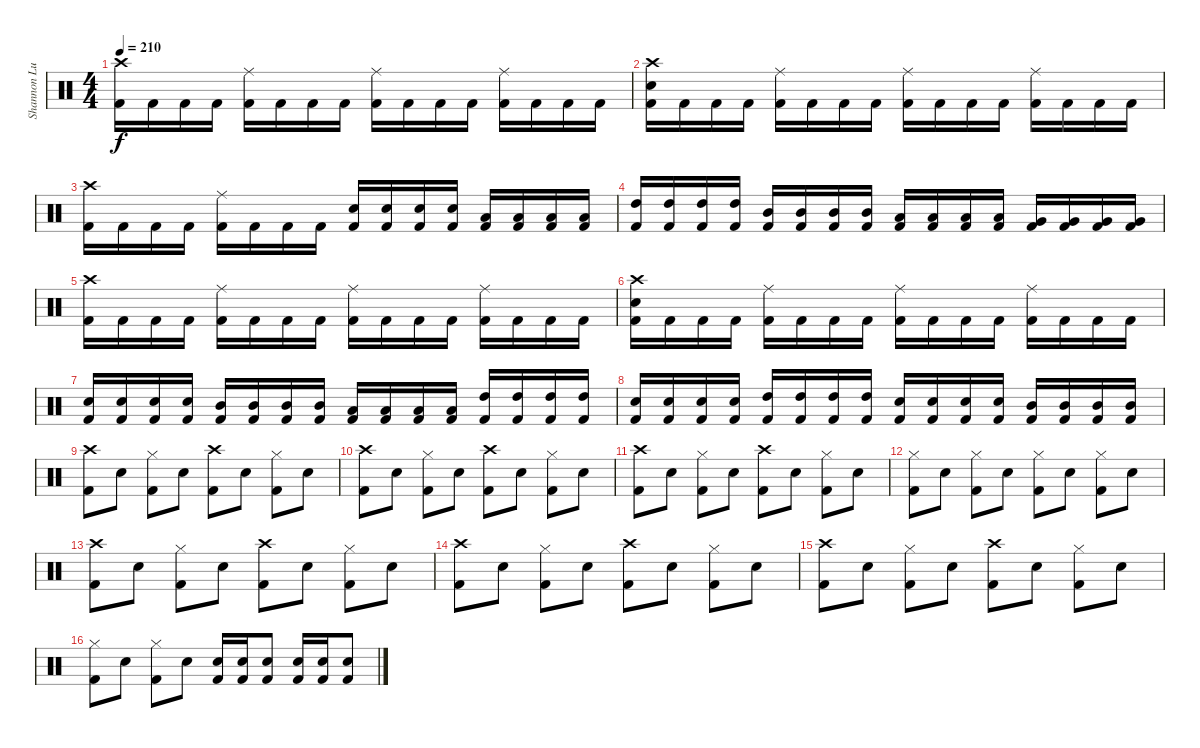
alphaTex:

\track ("Shannon Lucas" "Shannon Lu") {instrument percussion}
\staff {score}
\articulation defaults
\ts (4 4)
\tempo 210
\clef neutral
\ks c
("Crash high (hit)" "Kick (hit) 2").16{dy f} "Kick (hit) 2".16 "Kick (hit) 2".16 "Kick (hit) 2".16 ("Ride (middle)" "Kick (hit) 2").16 "Kick (hit) 2".16 "Kick (hit) 2".16 "Kick (hit) 2".16 ("Ride (middle)" "Kick (hit) 2").16 "Kick (hit) 2".16 "Kick (hit) 2".16 "Kick (hit) 2".16 ("Ride (middle)" "Kick (hit) 2").16 "Kick (hit) 2".16 "Kick (hit) 2".16 "Kick (hit) 2".16 |
("Crash high (hit)" "Electric Snare (hit)" "Kick (hit) 2").16 "Kick (hit) 2".16 "Kick (hit) 2".16 "Kick (hit) 2".16 ("Ride (middle)" "Kick (hit) 2").16 "Kick (hit) 2".16 "Kick (hit) 2".16 "Kick (hit) 2".16 ("Ride (middle)" "Kick (hit) 2").16 "Kick (hit) 2".16 "Kick (hit) 2".16 "Kick (hit) 2".16 ("Ride (middle)" "Kick (hit) 2").16 "Kick (hit) 2".16 "Kick (hit) 2".16 "Kick (hit) 2".16 |
("Crash high (hit)" "Kick (hit) 2").16 "Kick (hit) 2".16 "Kick (hit) 2".16 "Kick (hit) 2".16 ("Ride (middle)" "Kick (hit) 2").16 "Kick (hit) 2".16 "Kick (hit) 2".16 "Kick (hit) 2".16 ("Electric Snare (hit)" "Kick (hit) 2").16 ("Electric Snare (hit)" "Kick (hit) 2").16 ("Electric Snare (hit)" "Kick (hit) 2").16 ("Electric Snare (hit)" "Kick (hit) 2").16 ("Low Tom (hit)" "Kick (hit) 2").16 ("Low Tom (hit)" "Kick (hit) 2").16 ("Low Tom (hit)" "Kick (hit) 2").16 ("Low Tom (hit)" "Kick (hit) 2").16 |
("High Tom (hit)" "Kick (hit) 2").16 ("High Tom (hit)" "Kick (hit) 2").16 ("High Tom (hit)" "Kick (hit) 2").16 ("High Tom (hit)" "Kick (hit) 2").16 ("Mid Tom (hit)" "Kick (hit) 2").16 ("Mid Tom (hit)" "Kick (hit) 2").16 ("Mid Tom (hit)" "Kick (hit) 2").16 ("Mid Tom (hit)" "Kick (hit) 2").16 ("Low Tom (hit)" "Kick (hit) 2").16 ("Low Tom (hit)" "Kick (hit) 2").16 ("Low Tom (hit)" "Kick (hit) 2").16 ("Low Tom (hit)" "Kick (hit) 2").16 ("Very Low Tom (hit)" "Kick (hit) 2").16 ("Very Low Tom (hit)" "Kick (hit) 2").16 ("Very Low Tom (hit)" "Kick (hit) 2").16 ("Very Low Tom (hit)" "Kick (hit) 2").16 |
("Crash high (hit)" "Kick (hit) 2").16 "Kick (hit) 2".16 "Kick (hit) 2".16 "Kick (hit) 2".16 ("Ride (middle)" "Kick (hit) 2").16 "Kick (hit) 2".16 "Kick (hit) 2".16 "Kick (hit) 2".16 ("Ride (middle)" "Kick (hit) 2").16 "Kick (hit) 2".16 "Kick (hit) 2".16 "Kick (hit) 2".16 ("Ride (middle)" "Kick (hit) 2").16 "Kick (hit) 2".16 "Kick (hit) 2".16 "Kick (hit) 2".16 |
("Crash high (hit)" "Electric Snare (hit)" "Kick (hit) 2").16 "Kick (hit) 2".16 "Kick (hit) 2".16 "Kick (hit) 2".16 ("Ride (middle)" "Kick (hit) 2").16 "Kick (hit) 2".16 "Kick (hit) 2".16 "Kick (hit) 2".16 ("Ride (middle)" "Kick (hit) 2").16 "Kick (hit) 2".16 "Kick (hit) 2".16 "Kick (hit) 2".16 ("Ride (middle)" "Kick (hit) 2").16 "Kick (hit) 2".16 "Kick (hit) 2".16 "Kick (hit) 2".16 |
("Electric Snare (hit)" "Kick (hit) 2").16 ("Electric Snare (hit)" "Kick (hit) 2").16 ("Electric Snare (hit)" "Kick (hit) 2").16 ("Electric Snare (hit)" "Kick (hit) 2").16 ("Mid Tom (hit)" "Kick (hit) 2").16 ("Mid Tom (hit)" "Kick (hit) 2").16 ("Mid Tom (hit)" "Kick (hit) 2").16 ("Mid Tom (hit)" "Kick (hit) 2").16 ("Low Tom (hit)" "Kick (hit) 2").16 ("Low Tom (hit)" "Kick (hit) 2").16 ("Low Tom (hit)" "Kick (hit) 2").16 ("Low Tom (hit)" "Kick (hit) 2").16 ("High Tom (hit)" "Kick (hit) 2").16 ("High Tom (hit)" "Kick (hit) 2").16 ("High Tom (hit)" "Kick (hit) 2").16 ("High Tom (hit)" "Kick (hit) 2").16 |
("Electric Snare (hit)" "Kick (hit) 2").16 ("Electric Snare (hit)" "Kick (hit) 2").16 ("Electric Snare (hit)" "Kick (hit) 2").16 ("Electric Snare (hit)" "Kick (hit) 2").16 ("High Tom (hit)" "Kick (hit) 2").16 ("High Tom (hit)" "Kick (hit) 2").16 ("High Tom (hit)" "Kick (hit) 2").16 ("High Tom (hit)" "Kick (hit) 2").16 ("Electric Snare (hit)" "Kick (hit) 2").16 ("Electric Snare (hit)" "Kick (hit) 2").16 ("Electric Snare (hit)" "Kick (hit) 2").16 ("Electric Snare (hit)" "Kick (hit) 2").16 ("Mid Tom (hit)" "Kick (hit) 2").16 ("Mid Tom (hit)" "Kick (hit) 2").16 ("Mid Tom (hit)" "Kick (hit) 2").16 ("Mid Tom (hit)" "Kick (hit) 2").16 |
("Crash high (hit)" "Kick (hit) 2").8 "Electric Snare (hit)".8 ("Hi-Hat (closed)" "Kick (hit) 2").8 "Electric Snare (hit)".8 ("Crash high (hit)" "Kick (hit) 2").8 "Electric Snare (hit)".8 ("Hi-Hat (closed)" "Kick (hit) 2").8 "Electric Snare (hit)".8 |
("Crash high (hit)" "Kick (hit) 2").8 "Electric Snare (hit)".8 ("Hi-Hat (closed)" "Kick (hit) 2").8 "Electric Snare (hit)".8 ("Crash high (hit)" "Kick (hit) 2").8 "Electric Snare (hit)".8 ("Hi-Hat (closed)" "Kick (hit) 2").8 "Electric Snare (hit)".8 |
("Crash high (hit)" "Kick (hit) 2").8 "Electric Snare (hit)".8 ("Hi-Hat (closed)" "Kick (hit) 2").8 "Electric Snare (hit)".8 ("Crash high (hit)" "Kick (hit) 2").8 "Electric Snare (hit)".8 ("Hi-Hat (closed)" "Kick (hit) 2").8 "Electric Snare (hit)".8 |
("Hi-Hat (closed)" "Kick (hit) 2").8 "Electric Snare (hit)".8 ("Hi-Hat (closed)" "Kick (hit) 2").8 "Electric Snare (hit)".8 ("Hi-Hat (closed)" "Kick (hit) 2").8 "Electric Snare (hit)".8 ("Hi-Hat (closed)" "Kick (hit) 2").8 "Electric Snare (hit)".8 |
("Crash high (hit)" "Kick (hit) 2").8 "Electric Snare (hit)".8 ("Hi-Hat (closed)" "Kick (hit) 2").8 "Electric Snare (hit)".8 ("Crash high (hit)" "Kick (hit) 2").8 "Electric Snare (hit)".8 ("Hi-Hat (closed)" "Kick (hit) 2").8 "Electric Snare (hit)".8 |
("Crash high (hit)" "Kick (hit) 2").8 "Electric Snare (hit)".8 ("Hi-Hat (closed)" "Kick (hit) 2").8 "Electric Snare (hit)".8 ("Crash high (hit)" "Kick (hit) 2").8 "Electric Snare (hit)".8 ("Hi-Hat (closed)" "Kick (hit) 2").8 "Electric Snare (hit)".8 |
("Crash high (hit)" "Kick (hit) 2").8 "Electric Snare (hit)".8 ("Hi-Hat (closed)" "Kick (hit) 2").8 "Electric Snare (hit)".8 ("Crash high (hit)" "Kick (hit) 2").8 "Electric Snare (hit)".8 ("Hi-Hat (closed)" "Kick (hit) 2").8 "Electric Snare (hit)".8 |
("Hi-Hat (closed)" "Kick (hit) 2").8 "Electric Snare (hit)".8 ("Hi-Hat (closed)" "Kick (hit) 2").8 "Electric Snare (hit)".8 ("Electric Snare (hit)" "Kick (hit) 2").16 ("Electric Snare (hit)" "Kick (hit) 2").16 ("Electric Snare (hit)" "Kick (hit) 2").8 ("Electric Snare (hit)" "Kick (hit) 2").16 ("Electric Snare (hit)" "Kick (hit) 2").16 ("Electric Snare (hit)" "Kick (hit) 2").8
